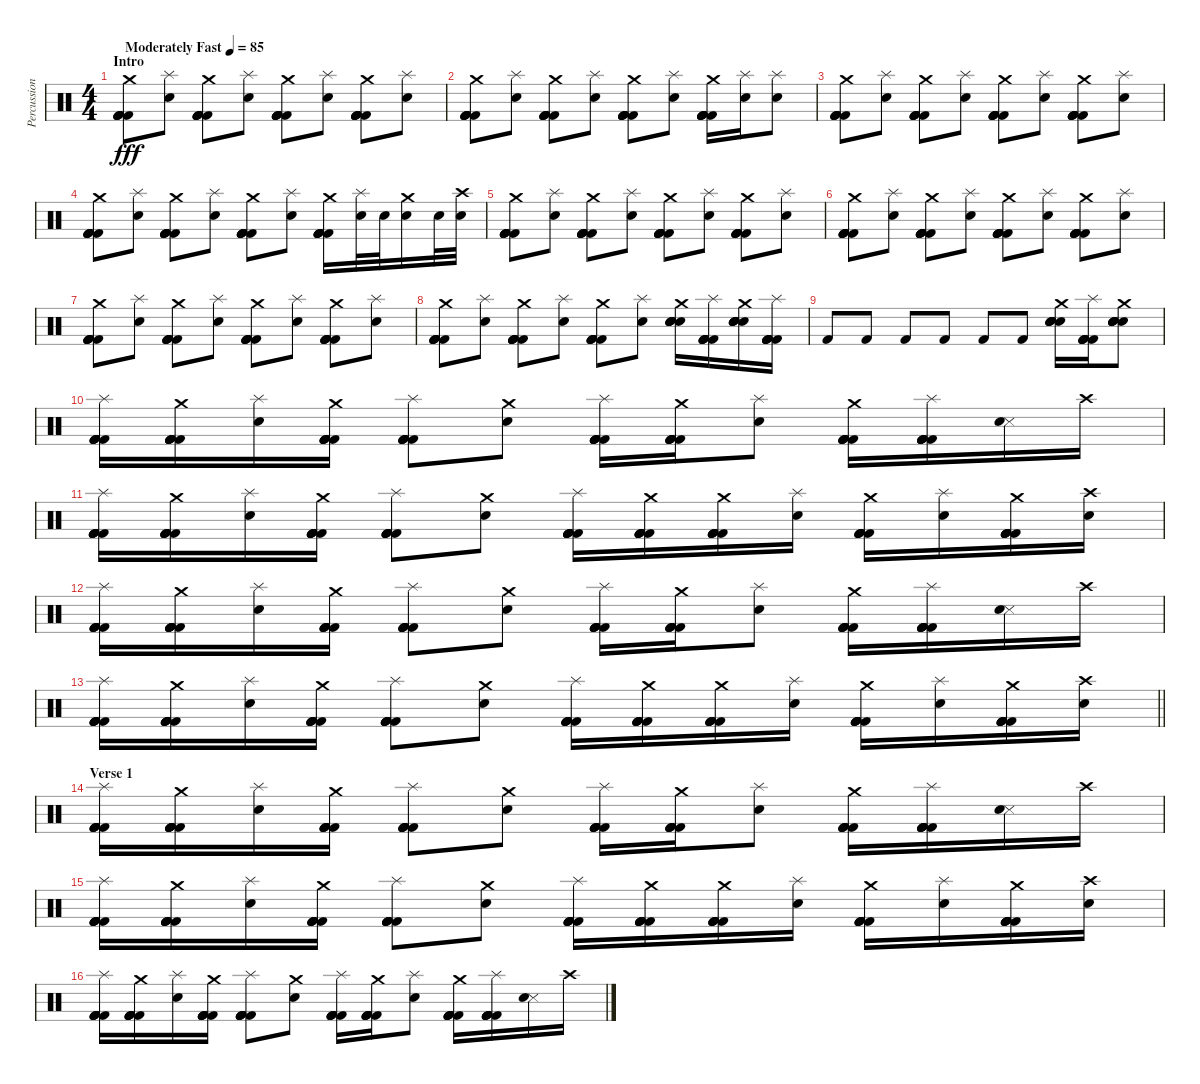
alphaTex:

\track ("Percussion" "Percussion") {instrument percussion}
\staff {score}
\articulation defaults
\ts (4 4)
\section ("" "Intro")
\tempo (85 "Moderately Fast")
\clef neutral
\ks c
("Crash medium (hit)" "Kick (hit) 2" "Kick (hit) 2" "Kick (hit) 2" "Kick (hit) 2" "Kick (hit) 2").8{dy fff} ("Splash (hit)" "Snare (hit) 2").8 ("Crash medium (hit)" "Kick (hit) 2" "Kick (hit) 2" "Kick (hit) 2" "Kick (hit) 2" "Kick (hit) 2").8 ("Splash (hit)" "Snare (hit) 2").8 ("Crash medium (hit)" "Kick (hit) 2" "Kick (hit) 2" "Kick (hit) 2" "Kick (hit) 2" "Kick (hit) 2").8 ("Splash (hit)" "Snare (hit) 2").8 ("Crash medium (hit)" "Kick (hit) 2" "Kick (hit) 2" "Kick (hit) 2" "Kick (hit) 2" "Kick (hit) 2").8 ("Splash (hit)" "Snare (hit) 2").8 |
("Crash medium (hit)" "Kick (hit) 2" "Kick (hit) 2" "Kick (hit) 2" "Kick (hit) 2" "Kick (hit) 2").8 ("Splash (hit)" "Snare (hit) 2").8 ("Crash medium (hit)" "Kick (hit) 2" "Kick (hit) 2" "Kick (hit) 2" "Kick (hit) 2" "Kick (hit) 2").8 ("Splash (hit)" "Snare (hit) 2").8 ("Crash medium (hit)" "Kick (hit) 2" "Kick (hit) 2" "Kick (hit) 2" "Kick (hit) 2" "Kick (hit) 2").8 ("Splash (hit)" "Snare (hit) 2").8 ("Crash medium (hit)" "Kick (hit) 2" "Kick (hit) 2" "Kick (hit) 2" "Kick (hit) 2" "Kick (hit) 2").16 ("Splash (hit)" "Snare (hit) 2").16 ("Splash (hit)" "Snare (hit) 2").8 |
("Crash medium (hit)" "Kick (hit) 2" "Kick (hit) 2" "Kick (hit) 2" "Kick (hit) 2" "Kick (hit) 2").8 ("Splash (hit)" "Snare (hit) 2").8 ("Crash medium (hit)" "Kick (hit) 2" "Kick (hit) 2" "Kick (hit) 2" "Kick (hit) 2" "Kick (hit) 2").8 ("Splash (hit)" "Snare (hit) 2").8 ("Crash medium (hit)" "Kick (hit) 2" "Kick (hit) 2" "Kick (hit) 2" "Kick (hit) 2" "Kick (hit) 2").8 ("Splash (hit)" "Snare (hit) 2").8 ("Crash medium (hit)" "Kick (hit) 2" "Kick (hit) 2" "Kick (hit) 2" "Kick (hit) 2" "Kick (hit) 2").8 ("Splash (hit)" "Snare (hit) 2").8 |
("Crash medium (hit)" "Kick (hit) 2" "Kick (hit) 2" "Kick (hit) 2" "Kick (hit) 2" "Kick (hit) 2").8 ("Splash (hit)" "Snare (hit) 2").8 ("Crash medium (hit)" "Kick (hit) 2" "Kick (hit) 2" "Kick (hit) 2" "Kick (hit) 2" "Kick (hit) 2").8 ("Splash (hit)" "Snare (hit) 2").8 ("Crash medium (hit)" "Kick (hit) 2" "Kick (hit) 2" "Kick (hit) 2" "Kick (hit) 2" "Kick (hit) 2").8 ("Splash (hit)" "Snare (hit) 2").8 ("Crash medium (hit)" "Kick (hit) 2" "Kick (hit) 2" "Kick (hit) 2" "Kick (hit) 2" "Kick (hit) 2").16 ("Splash (hit)" "Snare (hit) 2").32 "Snare (hit) 2".32 ("Crash medium (hit)" "Snare (hit) 2").16 "Snare (hit) 2".32 ("Crash high (hit)" "Snare (hit) 2").32 |
("Crash medium (hit)" "Kick (hit) 2" "Kick (hit) 2" "Kick (hit) 2" "Kick (hit) 2" "Kick (hit) 2").8 ("Splash (hit)" "Snare (hit) 2").8 ("Crash medium (hit)" "Kick (hit) 2" "Kick (hit) 2" "Kick (hit) 2" "Kick (hit) 2" "Kick (hit) 2").8 ("Splash (hit)" "Snare (hit) 2").8 ("Crash medium (hit)" "Kick (hit) 2" "Kick (hit) 2" "Kick (hit) 2" "Kick (hit) 2" "Kick (hit) 2").8 ("Splash (hit)" "Snare (hit) 2").8 ("Crash medium (hit)" "Kick (hit) 2" "Kick (hit) 2" "Kick (hit) 2" "Kick (hit) 2" "Kick (hit) 2").8 ("Splash (hit)" "Snare (hit) 2").8 |
("Crash medium (hit)" "Kick (hit) 2" "Kick (hit) 2" "Kick (hit) 2" "Kick (hit) 2" "Kick (hit) 2").8 ("Splash (hit)" "Snare (hit) 2").8 ("Crash medium (hit)" "Kick (hit) 2" "Kick (hit) 2" "Kick (hit) 2" "Kick (hit) 2" "Kick (hit) 2").8 ("Splash (hit)" "Snare (hit) 2").8 ("Crash medium (hit)" "Kick (hit) 2" "Kick (hit) 2" "Kick (hit) 2" "Kick (hit) 2" "Kick (hit) 2").8 ("Splash (hit)" "Snare (hit) 2").8 ("Crash medium (hit)" "Kick (hit) 2" "Kick (hit) 2" "Kick (hit) 2" "Kick (hit) 2" "Kick (hit) 2").8 ("Splash (hit)" "Snare (hit) 2").8 |
("Crash medium (hit)" "Kick (hit) 2" "Kick (hit) 2" "Kick (hit) 2" "Kick (hit) 2" "Kick (hit) 2").8 ("Splash (hit)" "Snare (hit) 2").8 ("Crash medium (hit)" "Kick (hit) 2" "Kick (hit) 2" "Kick (hit) 2" "Kick (hit) 2" "Kick (hit) 2").8 ("Splash (hit)" "Snare (hit) 2").8 ("Crash medium (hit)" "Kick (hit) 2" "Kick (hit) 2" "Kick (hit) 2" "Kick (hit) 2" "Kick (hit) 2").8 ("Splash (hit)" "Snare (hit) 2").8 ("Crash medium (hit)" "Kick (hit) 2" "Kick (hit) 2" "Kick (hit) 2" "Kick (hit) 2" "Kick (hit) 2").8 ("Splash (hit)" "Snare (hit) 2").8 |
("Crash medium (hit)" "Kick (hit) 2" "Kick (hit) 2" "Kick (hit) 2" "Kick (hit) 2" "Kick (hit) 2").8 ("Splash (hit)" "Snare (hit) 2").8 ("Crash medium (hit)" "Kick (hit) 2" "Kick (hit) 2" "Kick (hit) 2" "Kick (hit) 2" "Kick (hit) 2").8 ("Splash (hit)" "Snare (hit) 2").8 ("Crash medium (hit)" "Kick (hit) 2" "Kick (hit) 2" "Kick (hit) 2" "Kick (hit) 2" "Kick (hit) 2").8 ("Splash (hit)" "Snare (hit) 2").8 ("Crash medium (hit)" "Snare (hit) 2" "Snare (hit) 2" "Snare (hit) 2" "Snare (hit) 2" "Snare (hit) 2").16 ("Splash (hit)" "Kick (hit) 2" "Kick (hit) 2" "Kick (hit) 2" "Kick (hit) 2" "Kick (hit) 2").16 ("Crash medium (hit)" "Snare (hit) 2" "Snare (hit) 2" "Snare (hit) 2" "Snare (hit) 2" "Snare (hit) 2").16 ("Splash (hit)" "Kick (hit) 2" "Kick (hit) 2" "Kick (hit) 2" "Kick (hit) 2" "Kick (hit) 2").16 |
"Kick (hit) 2".8 "Kick (hit) 2".8 "Kick (hit) 2".8 "Kick (hit) 2".8 "Kick (hit) 2".8 "Kick (hit) 2".8 ("Crash medium (hit)" "Snare (hit) 2" "Snare (hit) 2" "Snare (hit) 2" "Snare (hit) 2" "Snare (hit) 2").16 ("Splash (hit)" "Kick (hit) 2" "Kick (hit) 2" "Kick (hit) 2" "Kick (hit) 2" "Kick (hit) 2").16 ("Crash medium (hit)" "Snare (hit) 2" "Snare (hit) 2" "Snare (hit) 2" "Snare (hit) 2" "Snare (hit) 2").8 |
("Splash (hit)" "Kick (hit) 2" "Kick (hit) 2" "Kick (hit) 2" "Kick (hit) 2" "Kick (hit) 2").16 ("Crash medium (hit)" "Kick (hit) 2" "Kick (hit) 2" "Kick (hit) 2" "Kick (hit) 2" "Kick (hit) 2").16 ("Splash (hit)" "Snare (hit) 2").16 ("Crash medium (hit)" "Kick (hit) 2" "Kick (hit) 2" "Kick (hit) 2" "Kick (hit) 2" "Kick (hit) 2").16 ("Splash (hit)" "Kick (hit) 2" "Kick (hit) 2" "Kick (hit) 2" "Kick (hit) 2" "Kick (hit) 2").8 ("Crash medium (hit)" "Snare (hit) 2").8 ("Splash (hit)" "Kick (hit) 2" "Kick (hit) 2" "Kick (hit) 2" "Kick (hit) 2" "Kick (hit) 2").16 ("Crash medium (hit)" "Kick (hit) 2" "Kick (hit) 2" "Kick (hit) 2" "Kick (hit) 2" "Kick (hit) 2").16 ("Splash (hit)" "Snare (hit) 2").8 ("Crash medium (hit)" "Kick (hit) 2" "Kick (hit) 2" "Kick (hit) 2" "Kick (hit) 2" "Kick (hit) 2").16 ("Splash (hit)" "Kick (hit) 2" "Kick (hit) 2" "Kick (hit) 2" "Kick (hit) 2" "Kick (hit) 2").16 ("Snare (side stick) 3" "Snare (hit) 2").16 "Crash high (hit)".16 |
("Splash (hit)" "Kick (hit) 2" "Kick (hit) 2" "Kick (hit) 2" "Kick (hit) 2" "Kick (hit) 2").16 ("Crash medium (hit)" "Kick (hit) 2" "Kick (hit) 2" "Kick (hit) 2" "Kick (hit) 2" "Kick (hit) 2").16 ("Splash (hit)" "Snare (hit) 2").16 ("Crash medium (hit)" "Kick (hit) 2" "Kick (hit) 2" "Kick (hit) 2" "Kick (hit) 2" "Kick (hit) 2").16 ("Splash (hit)" "Kick (hit) 2" "Kick (hit) 2" "Kick (hit) 2" "Kick (hit) 2" "Kick (hit) 2").8 ("Crash medium (hit)" "Snare (hit) 2").8 ("Splash (hit)" "Kick (hit) 2" "Kick (hit) 2" "Kick (hit) 2" "Kick (hit) 2" "Kick (hit) 2").16 ("Crash medium (hit)" "Kick (hit) 2" "Kick (hit) 2" "Kick (hit) 2" "Kick (hit) 2" "Kick (hit) 2").16 ("Crash medium (hit)" "Kick (hit) 2" "Kick (hit) 2" "Kick (hit) 2" "Kick (hit) 2" "Kick (hit) 2").16 ("Splash (hit)" "Snare (hit) 2").16 ("Crash medium (hit)" "Kick (hit) 2" "Kick (hit) 2" "Kick (hit) 2" "Kick (hit) 2" "Kick (hit) 2").16 ("Splash (hit)" "Snare (hit) 2").16 ("Crash medium (hit)" "Kick (hit) 2" "Kick (hit) 2" "Kick (hit) 2" "Kick (hit) 2" "Kick (hit) 2").16 ("Crash high (hit)" "Snare (hit) 2").16 |
("Splash (hit)" "Kick (hit) 2" "Kick (hit) 2" "Kick (hit) 2" "Kick (hit) 2" "Kick (hit) 2").16 ("Crash medium (hit)" "Kick (hit) 2" "Kick (hit) 2" "Kick (hit) 2" "Kick (hit) 2" "Kick (hit) 2").16 ("Splash (hit)" "Snare (hit) 2").16 ("Crash medium (hit)" "Kick (hit) 2" "Kick (hit) 2" "Kick (hit) 2" "Kick (hit) 2" "Kick (hit) 2").16 ("Splash (hit)" "Kick (hit) 2" "Kick (hit) 2" "Kick (hit) 2" "Kick (hit) 2" "Kick (hit) 2").8 ("Crash medium (hit)" "Snare (hit) 2").8 ("Splash (hit)" "Kick (hit) 2" "Kick (hit) 2" "Kick (hit) 2" "Kick (hit) 2" "Kick (hit) 2").16 ("Crash medium (hit)" "Kick (hit) 2" "Kick (hit) 2" "Kick (hit) 2" "Kick (hit) 2" "Kick (hit) 2").16 ("Splash (hit)" "Snare (hit) 2").8 ("Crash medium (hit)" "Kick (hit) 2" "Kick (hit) 2" "Kick (hit) 2" "Kick (hit) 2" "Kick (hit) 2").16 ("Splash (hit)" "Kick (hit) 2" "Kick (hit) 2" "Kick (hit) 2" "Kick (hit) 2" "Kick (hit) 2").16 ("Snare (side stick) 3" "Snare (hit) 2").16 "Crash high (hit)".16 |
\barLineRight lightlight
("Splash (hit)" "Kick (hit) 2" "Kick (hit) 2" "Kick (hit) 2" "Kick (hit) 2" "Kick (hit) 2").16 ("Crash medium (hit)" "Kick (hit) 2" "Kick (hit) 2" "Kick (hit) 2" "Kick (hit) 2" "Kick (hit) 2").16 ("Splash (hit)" "Snare (hit) 2").16 ("Crash medium (hit)" "Kick (hit) 2" "Kick (hit) 2" "Kick (hit) 2" "Kick (hit) 2" "Kick (hit) 2").16 ("Splash (hit)" "Kick (hit) 2" "Kick (hit) 2" "Kick (hit) 2" "Kick (hit) 2" "Kick (hit) 2").8 ("Crash medium (hit)" "Snare (hit) 2").8 ("Splash (hit)" "Kick (hit) 2" "Kick (hit) 2" "Kick (hit) 2" "Kick (hit) 2" "Kick (hit) 2").16 ("Crash medium (hit)" "Kick (hit) 2" "Kick (hit) 2" "Kick (hit) 2" "Kick (hit) 2" "Kick (hit) 2").16 ("Crash medium (hit)" "Kick (hit) 2" "Kick (hit) 2" "Kick (hit) 2" "Kick (hit) 2" "Kick (hit) 2").16 ("Splash (hit)" "Snare (hit) 2").16 ("Crash medium (hit)" "Kick (hit) 2" "Kick (hit) 2" "Kick (hit) 2" "Kick (hit) 2" "Kick (hit) 2").16 ("Splash (hit)" "Snare (hit) 2").16 ("Crash medium (hit)" "Kick (hit) 2" "Kick (hit) 2" "Kick (hit) 2" "Kick (hit) 2" "Kick (hit) 2").16 ("Crash high (hit)" "Snare (hit) 2").16 |
\section ("" "Verse 1")
("Splash (hit)" "Kick (hit) 2" "Kick (hit) 2" "Kick (hit) 2" "Kick (hit) 2" "Kick (hit) 2").16 ("Crash medium (hit)" "Kick (hit) 2" "Kick (hit) 2" "Kick (hit) 2" "Kick (hit) 2" "Kick (hit) 2").16 ("Splash (hit)" "Snare (hit) 2").16 ("Crash medium (hit)" "Kick (hit) 2" "Kick (hit) 2" "Kick (hit) 2" "Kick (hit) 2" "Kick (hit) 2").16 ("Splash (hit)" "Kick (hit) 2" "Kick (hit) 2" "Kick (hit) 2" "Kick (hit) 2" "Kick (hit) 2").8 ("Crash medium (hit)" "Snare (hit) 2").8 ("Splash (hit)" "Kick (hit) 2" "Kick (hit) 2" "Kick (hit) 2" "Kick (hit) 2" "Kick (hit) 2").16 ("Crash medium (hit)" "Kick (hit) 2" "Kick (hit) 2" "Kick (hit) 2" "Kick (hit) 2" "Kick (hit) 2").16 ("Splash (hit)" "Snare (hit) 2").8 ("Crash medium (hit)" "Kick (hit) 2" "Kick (hit) 2" "Kick (hit) 2" "Kick (hit) 2" "Kick (hit) 2").16 ("Splash (hit)" "Kick (hit) 2" "Kick (hit) 2" "Kick (hit) 2" "Kick (hit) 2" "Kick (hit) 2").16 ("Snare (side stick) 3" "Snare (hit) 2").16 "Crash high (hit)".16 |
("Splash (hit)" "Kick (hit) 2" "Kick (hit) 2" "Kick (hit) 2" "Kick (hit) 2" "Kick (hit) 2").16 ("Crash medium (hit)" "Kick (hit) 2" "Kick (hit) 2" "Kick (hit) 2" "Kick (hit) 2" "Kick (hit) 2").16 ("Splash (hit)" "Snare (hit) 2").16 ("Crash medium (hit)" "Kick (hit) 2" "Kick (hit) 2" "Kick (hit) 2" "Kick (hit) 2" "Kick (hit) 2").16 ("Splash (hit)" "Kick (hit) 2" "Kick (hit) 2" "Kick (hit) 2" "Kick (hit) 2" "Kick (hit) 2").8 ("Crash medium (hit)" "Snare (hit) 2").8 ("Splash (hit)" "Kick (hit) 2" "Kick (hit) 2" "Kick (hit) 2" "Kick (hit) 2" "Kick (hit) 2").16 ("Crash medium (hit)" "Kick (hit) 2" "Kick (hit) 2" "Kick (hit) 2" "Kick (hit) 2" "Kick (hit) 2").16 ("Crash medium (hit)" "Kick (hit) 2" "Kick (hit) 2" "Kick (hit) 2" "Kick (hit) 2" "Kick (hit) 2").16 ("Splash (hit)" "Snare (hit) 2").16 ("Crash medium (hit)" "Kick (hit) 2" "Kick (hit) 2" "Kick (hit) 2" "Kick (hit) 2" "Kick (hit) 2").16 ("Splash (hit)" "Snare (hit) 2").16 ("Crash medium (hit)" "Kick (hit) 2" "Kick (hit) 2" "Kick (hit) 2" "Kick (hit) 2" "Kick (hit) 2").16 ("Crash high (hit)" "Snare (hit) 2").16 |
("Splash (hit)" "Kick (hit) 2" "Kick (hit) 2" "Kick (hit) 2" "Kick (hit) 2" "Kick (hit) 2").16 ("Crash medium (hit)" "Kick (hit) 2" "Kick (hit) 2" "Kick (hit) 2" "Kick (hit) 2" "Kick (hit) 2").16 ("Splash (hit)" "Snare (hit) 2").16 ("Crash medium (hit)" "Kick (hit) 2" "Kick (hit) 2" "Kick (hit) 2" "Kick (hit) 2" "Kick (hit) 2").16 ("Splash (hit)" "Kick (hit) 2" "Kick (hit) 2" "Kick (hit) 2" "Kick (hit) 2" "Kick (hit) 2").8 ("Crash medium (hit)" "Snare (hit) 2").8 ("Splash (hit)" "Kick (hit) 2" "Kick (hit) 2" "Kick (hit) 2" "Kick (hit) 2" "Kick (hit) 2").16 ("Crash medium (hit)" "Kick (hit) 2" "Kick (hit) 2" "Kick (hit) 2" "Kick (hit) 2" "Kick (hit) 2").16 ("Splash (hit)" "Snare (hit) 2").8 ("Crash medium (hit)" "Kick (hit) 2" "Kick (hit) 2" "Kick (hit) 2" "Kick (hit) 2" "Kick (hit) 2").16 ("Splash (hit)" "Kick (hit) 2" "Kick (hit) 2" "Kick (hit) 2" "Kick (hit) 2" "Kick (hit) 2").16 ("Snare (side stick) 3" "Snare (hit) 2").16 "Crash high (hit)".16
